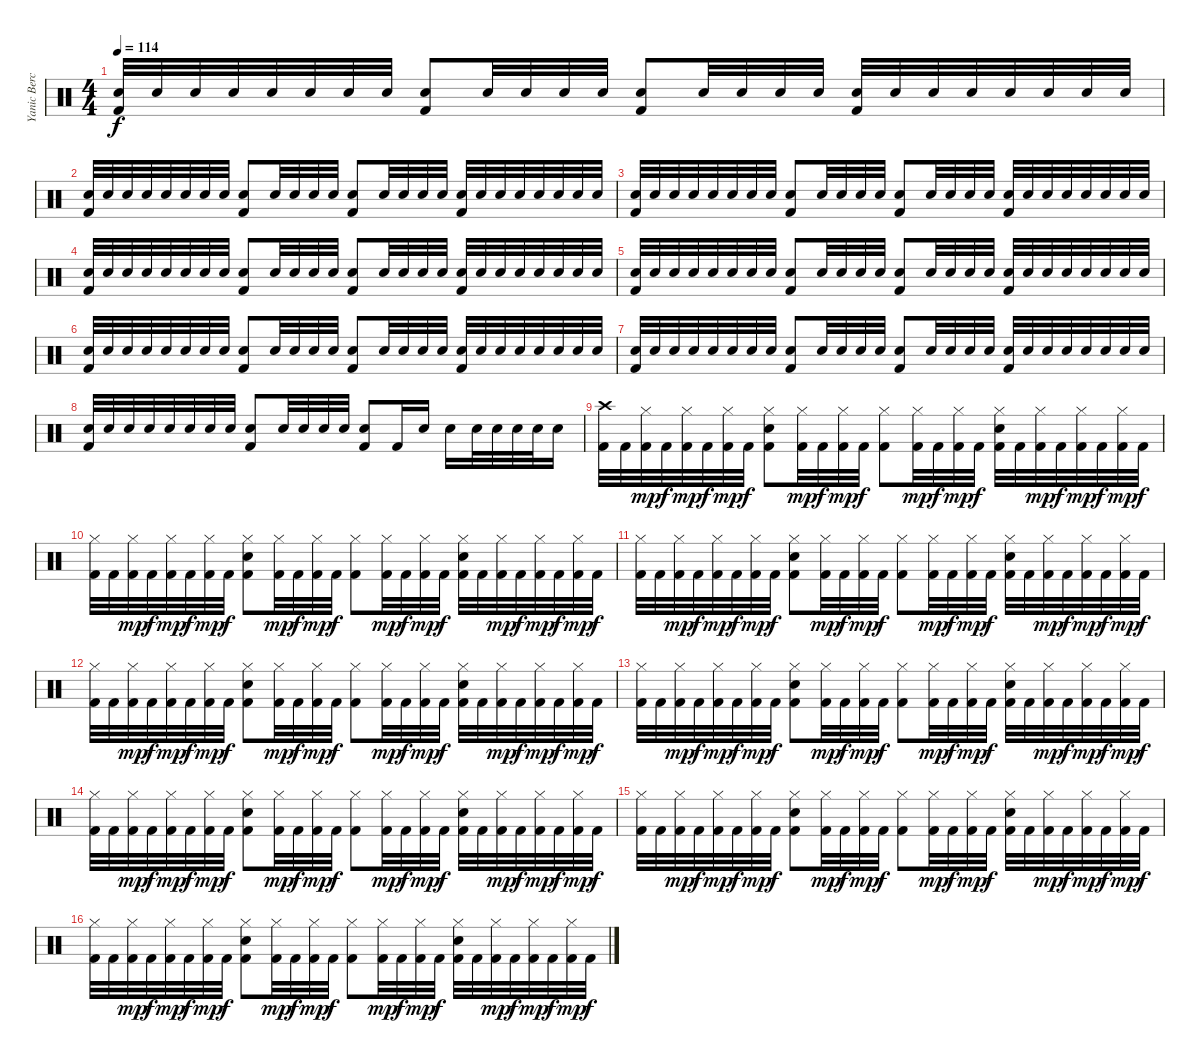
\track ("Yanic Bercier" "Yanic Berc") {instrument percussion}
\staff {score}
\articulation defaults
\ts (4 4)
\tempo 114
\clef neutral
\ks c
("Electric Snare (hit)" "Kick (hit) 2").32{dy f} "Electric Snare (hit)".32 "Electric Snare (hit)".32 "Electric Snare (hit)".32 "Electric Snare (hit)".32 "Electric Snare (hit)".32 "Electric Snare (hit)".32 "Electric Snare (hit)".32 ("Electric Snare (hit)" "Kick (hit) 2").8 "Electric Snare (hit)".32 "Electric Snare (hit)".32 "Electric Snare (hit)".32 "Electric Snare (hit)".32 ("Electric Snare (hit)" "Kick (hit) 2").8 "Electric Snare (hit)".32 "Electric Snare (hit)".32 "Electric Snare (hit)".32 "Electric Snare (hit)".32 ("Electric Snare (hit)" "Kick (hit) 2").32 "Electric Snare (hit)".32 "Electric Snare (hit)".32 "Electric Snare (hit)".32 "Electric Snare (hit)".32 "Electric Snare (hit)".32 "Electric Snare (hit)".32 "Electric Snare (hit)".32 |
("Electric Snare (hit)" "Kick (hit) 2").32 "Electric Snare (hit)".32 "Electric Snare (hit)".32 "Electric Snare (hit)".32 "Electric Snare (hit)".32 "Electric Snare (hit)".32 "Electric Snare (hit)".32 "Electric Snare (hit)".32 ("Electric Snare (hit)" "Kick (hit) 2").8 "Electric Snare (hit)".32 "Electric Snare (hit)".32 "Electric Snare (hit)".32 "Electric Snare (hit)".32 ("Electric Snare (hit)" "Kick (hit) 2").8 "Electric Snare (hit)".32 "Electric Snare (hit)".32 "Electric Snare (hit)".32 "Electric Snare (hit)".32 ("Electric Snare (hit)" "Kick (hit) 2").32 "Electric Snare (hit)".32 "Electric Snare (hit)".32 "Electric Snare (hit)".32 "Electric Snare (hit)".32 "Electric Snare (hit)".32 "Electric Snare (hit)".32 "Electric Snare (hit)".32 |
("Electric Snare (hit)" "Kick (hit) 2").32 "Electric Snare (hit)".32 "Electric Snare (hit)".32 "Electric Snare (hit)".32 "Electric Snare (hit)".32 "Electric Snare (hit)".32 "Electric Snare (hit)".32 "Electric Snare (hit)".32 ("Electric Snare (hit)" "Kick (hit) 2").8 "Electric Snare (hit)".32 "Electric Snare (hit)".32 "Electric Snare (hit)".32 "Electric Snare (hit)".32 ("Electric Snare (hit)" "Kick (hit) 2").8 "Electric Snare (hit)".32 "Electric Snare (hit)".32 "Electric Snare (hit)".32 "Electric Snare (hit)".32 ("Electric Snare (hit)" "Kick (hit) 2").32 "Electric Snare (hit)".32 "Electric Snare (hit)".32 "Electric Snare (hit)".32 "Electric Snare (hit)".32 "Electric Snare (hit)".32 "Electric Snare (hit)".32 "Electric Snare (hit)".32 |
("Electric Snare (hit)" "Kick (hit) 2").32 "Electric Snare (hit)".32 "Electric Snare (hit)".32 "Electric Snare (hit)".32 "Electric Snare (hit)".32 "Electric Snare (hit)".32 "Electric Snare (hit)".32 "Electric Snare (hit)".32 ("Electric Snare (hit)" "Kick (hit) 2").8 "Electric Snare (hit)".32 "Electric Snare (hit)".32 "Electric Snare (hit)".32 "Electric Snare (hit)".32 ("Electric Snare (hit)" "Kick (hit) 2").8 "Electric Snare (hit)".32 "Electric Snare (hit)".32 "Electric Snare (hit)".32 "Electric Snare (hit)".32 ("Electric Snare (hit)" "Kick (hit) 2").32 "Electric Snare (hit)".32 "Electric Snare (hit)".32 "Electric Snare (hit)".32 "Electric Snare (hit)".32 "Electric Snare (hit)".32 "Electric Snare (hit)".32 "Electric Snare (hit)".32 |
("Electric Snare (hit)" "Kick (hit) 2").32 "Electric Snare (hit)".32 "Electric Snare (hit)".32 "Electric Snare (hit)".32 "Electric Snare (hit)".32 "Electric Snare (hit)".32 "Electric Snare (hit)".32 "Electric Snare (hit)".32 ("Electric Snare (hit)" "Kick (hit) 2").8 "Electric Snare (hit)".32 "Electric Snare (hit)".32 "Electric Snare (hit)".32 "Electric Snare (hit)".32 ("Electric Snare (hit)" "Kick (hit) 2").8 "Electric Snare (hit)".32 "Electric Snare (hit)".32 "Electric Snare (hit)".32 "Electric Snare (hit)".32 ("Electric Snare (hit)" "Kick (hit) 2").32 "Electric Snare (hit)".32 "Electric Snare (hit)".32 "Electric Snare (hit)".32 "Electric Snare (hit)".32 "Electric Snare (hit)".32 "Electric Snare (hit)".32 "Electric Snare (hit)".32 |
("Electric Snare (hit)" "Kick (hit) 2").32 "Electric Snare (hit)".32 "Electric Snare (hit)".32 "Electric Snare (hit)".32 "Electric Snare (hit)".32 "Electric Snare (hit)".32 "Electric Snare (hit)".32 "Electric Snare (hit)".32 ("Electric Snare (hit)" "Kick (hit) 2").8 "Electric Snare (hit)".32 "Electric Snare (hit)".32 "Electric Snare (hit)".32 "Electric Snare (hit)".32 ("Electric Snare (hit)" "Kick (hit) 2").8 "Electric Snare (hit)".32 "Electric Snare (hit)".32 "Electric Snare (hit)".32 "Electric Snare (hit)".32 ("Electric Snare (hit)" "Kick (hit) 2").32 "Electric Snare (hit)".32 "Electric Snare (hit)".32 "Electric Snare (hit)".32 "Electric Snare (hit)".32 "Electric Snare (hit)".32 "Electric Snare (hit)".32 "Electric Snare (hit)".32 |
("Electric Snare (hit)" "Kick (hit) 2").32 "Electric Snare (hit)".32 "Electric Snare (hit)".32 "Electric Snare (hit)".32 "Electric Snare (hit)".32 "Electric Snare (hit)".32 "Electric Snare (hit)".32 "Electric Snare (hit)".32 ("Electric Snare (hit)" "Kick (hit) 2").8 "Electric Snare (hit)".32 "Electric Snare (hit)".32 "Electric Snare (hit)".32 "Electric Snare (hit)".32 ("Electric Snare (hit)" "Kick (hit) 2").8 "Electric Snare (hit)".32 "Electric Snare (hit)".32 "Electric Snare (hit)".32 "Electric Snare (hit)".32 ("Electric Snare (hit)" "Kick (hit) 2").32 "Electric Snare (hit)".32 "Electric Snare (hit)".32 "Electric Snare (hit)".32 "Electric Snare (hit)".32 "Electric Snare (hit)".32 "Electric Snare (hit)".32 "Electric Snare (hit)".32 |
("Electric Snare (hit)" "Kick (hit) 2").32 "Electric Snare (hit)".32 "Electric Snare (hit)".32 "Electric Snare (hit)".32 "Electric Snare (hit)".32 "Electric Snare (hit)".32 "Electric Snare (hit)".32 "Electric Snare (hit)".32 ("Electric Snare (hit)" "Kick (hit) 2").8 "Electric Snare (hit)".32 "Electric Snare (hit)".32 "Electric Snare (hit)".32 "Electric Snare (hit)".32 ("Electric Snare (hit)" "Kick (hit) 2").8 "Kick (hit) 2".16 "Electric Snare (hit)".16 "Electric Snare (hit)".16 "Electric Snare (hit)".32 "Electric Snare (hit)".32 "Electric Snare (hit)".32 "Electric Snare (hit)".32 "Electric Snare (hit)".16 |
("Crash high (hit)" "Kick (hit) 2").32 "Kick (hit) 2".32 ("Hi-Hat (closed)" "Kick (hit) 2").32{dy mp} "Kick (hit) 2".32{dy f} ("Hi-Hat (closed)" "Kick (hit) 2").32{dy mp} "Kick (hit) 2".32{dy f} ("Hi-Hat (closed)" "Kick (hit) 2").32{dy mp} "Kick (hit) 2".32{dy f} ("Hi-Hat (closed)" "Electric Snare (hit)" "Kick (hit) 2").8 ("Hi-Hat (closed)" "Kick (hit) 2").32{dy mp} "Kick (hit) 2".32{dy f} ("Hi-Hat (closed)" "Kick (hit) 2").32{dy mp} "Kick (hit) 2".32{dy f} ("Hi-Hat (closed)" "Kick (hit) 2").8 ("Hi-Hat (closed)" "Kick (hit) 2").32{dy mp} "Kick (hit) 2".32{dy f} ("Hi-Hat (closed)" "Kick (hit) 2").32{dy mp} "Kick (hit) 2".32{dy f} ("Hi-Hat (closed)" "Electric Snare (hit)" "Kick (hit) 2").32 "Kick (hit) 2".32 ("Hi-Hat (closed)" "Kick (hit) 2").32{dy mp} "Kick (hit) 2".32{dy f} ("Hi-Hat (closed)" "Kick (hit) 2").32{dy mp} "Kick (hit) 2".32{dy f} ("Hi-Hat (closed)" "Kick (hit) 2").32{dy mp} "Kick (hit) 2".32{dy f} |
("Hi-Hat (closed)" "Kick (hit) 2").32 "Kick (hit) 2".32 ("Hi-Hat (closed)" "Kick (hit) 2").32{dy mp} "Kick (hit) 2".32{dy f} ("Hi-Hat (closed)" "Kick (hit) 2").32{dy mp} "Kick (hit) 2".32{dy f} ("Hi-Hat (closed)" "Kick (hit) 2").32{dy mp} "Kick (hit) 2".32{dy f} ("Hi-Hat (closed)" "Electric Snare (hit)" "Kick (hit) 2").8 ("Hi-Hat (closed)" "Kick (hit) 2").32{dy mp} "Kick (hit) 2".32{dy f} ("Hi-Hat (closed)" "Kick (hit) 2").32{dy mp} "Kick (hit) 2".32{dy f} ("Hi-Hat (closed)" "Kick (hit) 2").8 ("Hi-Hat (closed)" "Kick (hit) 2").32{dy mp} "Kick (hit) 2".32{dy f} ("Hi-Hat (closed)" "Kick (hit) 2").32{dy mp} "Kick (hit) 2".32{dy f} ("Hi-Hat (closed)" "Electric Snare (hit)" "Kick (hit) 2").32 "Kick (hit) 2".32 ("Hi-Hat (closed)" "Kick (hit) 2").32{dy mp} "Kick (hit) 2".32{dy f} ("Hi-Hat (closed)" "Kick (hit) 2").32{dy mp} "Kick (hit) 2".32{dy f} ("Hi-Hat (closed)" "Kick (hit) 2").32{dy mp} "Kick (hit) 2".32{dy f} |
("Hi-Hat (closed)" "Kick (hit) 2").32 "Kick (hit) 2".32 ("Hi-Hat (closed)" "Kick (hit) 2").32{dy mp} "Kick (hit) 2".32{dy f} ("Hi-Hat (closed)" "Kick (hit) 2").32{dy mp} "Kick (hit) 2".32{dy f} ("Hi-Hat (closed)" "Kick (hit) 2").32{dy mp} "Kick (hit) 2".32{dy f} ("Hi-Hat (closed)" "Electric Snare (hit)" "Kick (hit) 2").8 ("Hi-Hat (closed)" "Kick (hit) 2").32{dy mp} "Kick (hit) 2".32{dy f} ("Hi-Hat (closed)" "Kick (hit) 2").32{dy mp} "Kick (hit) 2".32{dy f} ("Hi-Hat (closed)" "Kick (hit) 2").8 ("Hi-Hat (closed)" "Kick (hit) 2").32{dy mp} "Kick (hit) 2".32{dy f} ("Hi-Hat (closed)" "Kick (hit) 2").32{dy mp} "Kick (hit) 2".32{dy f} ("Hi-Hat (closed)" "Electric Snare (hit)" "Kick (hit) 2").32 "Kick (hit) 2".32 ("Hi-Hat (closed)" "Kick (hit) 2").32{dy mp} "Kick (hit) 2".32{dy f} ("Hi-Hat (closed)" "Kick (hit) 2").32{dy mp} "Kick (hit) 2".32{dy f} ("Hi-Hat (closed)" "Kick (hit) 2").32{dy mp} "Kick (hit) 2".32{dy f} |
("Hi-Hat (closed)" "Kick (hit) 2").32 "Kick (hit) 2".32 ("Hi-Hat (closed)" "Kick (hit) 2").32{dy mp} "Kick (hit) 2".32{dy f} ("Hi-Hat (closed)" "Kick (hit) 2").32{dy mp} "Kick (hit) 2".32{dy f} ("Hi-Hat (closed)" "Kick (hit) 2").32{dy mp} "Kick (hit) 2".32{dy f} ("Hi-Hat (closed)" "Electric Snare (hit)" "Kick (hit) 2").8 ("Hi-Hat (closed)" "Kick (hit) 2").32{dy mp} "Kick (hit) 2".32{dy f} ("Hi-Hat (closed)" "Kick (hit) 2").32{dy mp} "Kick (hit) 2".32{dy f} ("Hi-Hat (closed)" "Kick (hit) 2").8 ("Hi-Hat (closed)" "Kick (hit) 2").32{dy mp} "Kick (hit) 2".32{dy f} ("Hi-Hat (closed)" "Kick (hit) 2").32{dy mp} "Kick (hit) 2".32{dy f} ("Hi-Hat (closed)" "Electric Snare (hit)" "Kick (hit) 2").32 "Kick (hit) 2".32 ("Hi-Hat (closed)" "Kick (hit) 2").32{dy mp} "Kick (hit) 2".32{dy f} ("Hi-Hat (closed)" "Kick (hit) 2").32{dy mp} "Kick (hit) 2".32{dy f} ("Hi-Hat (closed)" "Kick (hit) 2").32{dy mp} "Kick (hit) 2".32{dy f} |
("Hi-Hat (closed)" "Kick (hit) 2").32 "Kick (hit) 2".32 ("Hi-Hat (closed)" "Kick (hit) 2").32{dy mp} "Kick (hit) 2".32{dy f} ("Hi-Hat (closed)" "Kick (hit) 2").32{dy mp} "Kick (hit) 2".32{dy f} ("Hi-Hat (closed)" "Kick (hit) 2").32{dy mp} "Kick (hit) 2".32{dy f} ("Hi-Hat (closed)" "Electric Snare (hit)" "Kick (hit) 2").8 ("Hi-Hat (closed)" "Kick (hit) 2").32{dy mp} "Kick (hit) 2".32{dy f} ("Hi-Hat (closed)" "Kick (hit) 2").32{dy mp} "Kick (hit) 2".32{dy f} ("Hi-Hat (closed)" "Kick (hit) 2").8 ("Hi-Hat (closed)" "Kick (hit) 2").32{dy mp} "Kick (hit) 2".32{dy f} ("Hi-Hat (closed)" "Kick (hit) 2").32{dy mp} "Kick (hit) 2".32{dy f} ("Hi-Hat (closed)" "Electric Snare (hit)" "Kick (hit) 2").32 "Kick (hit) 2".32 ("Hi-Hat (closed)" "Kick (hit) 2").32{dy mp} "Kick (hit) 2".32{dy f} ("Hi-Hat (closed)" "Kick (hit) 2").32{dy mp} "Kick (hit) 2".32{dy f} ("Hi-Hat (closed)" "Kick (hit) 2").32{dy mp} "Kick (hit) 2".32{dy f} |
("Hi-Hat (closed)" "Kick (hit) 2").32 "Kick (hit) 2".32 ("Hi-Hat (closed)" "Kick (hit) 2").32{dy mp} "Kick (hit) 2".32{dy f} ("Hi-Hat (closed)" "Kick (hit) 2").32{dy mp} "Kick (hit) 2".32{dy f} ("Hi-Hat (closed)" "Kick (hit) 2").32{dy mp} "Kick (hit) 2".32{dy f} ("Hi-Hat (closed)" "Electric Snare (hit)" "Kick (hit) 2").8 ("Hi-Hat (closed)" "Kick (hit) 2").32{dy mp} "Kick (hit) 2".32{dy f} ("Hi-Hat (closed)" "Kick (hit) 2").32{dy mp} "Kick (hit) 2".32{dy f} ("Hi-Hat (closed)" "Kick (hit) 2").8 ("Hi-Hat (closed)" "Kick (hit) 2").32{dy mp} "Kick (hit) 2".32{dy f} ("Hi-Hat (closed)" "Kick (hit) 2").32{dy mp} "Kick (hit) 2".32{dy f} ("Hi-Hat (closed)" "Electric Snare (hit)" "Kick (hit) 2").32 "Kick (hit) 2".32 ("Hi-Hat (closed)" "Kick (hit) 2").32{dy mp} "Kick (hit) 2".32{dy f} ("Hi-Hat (closed)" "Kick (hit) 2").32{dy mp} "Kick (hit) 2".32{dy f} ("Hi-Hat (closed)" "Kick (hit) 2").32{dy mp} "Kick (hit) 2".32{dy f} |
("Hi-Hat (closed)" "Kick (hit) 2").32 "Kick (hit) 2".32 ("Hi-Hat (closed)" "Kick (hit) 2").32{dy mp} "Kick (hit) 2".32{dy f} ("Hi-Hat (closed)" "Kick (hit) 2").32{dy mp} "Kick (hit) 2".32{dy f} ("Hi-Hat (closed)" "Kick (hit) 2").32{dy mp} "Kick (hit) 2".32{dy f} ("Hi-Hat (closed)" "Electric Snare (hit)" "Kick (hit) 2").8 ("Hi-Hat (closed)" "Kick (hit) 2").32{dy mp} "Kick (hit) 2".32{dy f} ("Hi-Hat (closed)" "Kick (hit) 2").32{dy mp} "Kick (hit) 2".32{dy f} ("Hi-Hat (closed)" "Kick (hit) 2").8 ("Hi-Hat (closed)" "Kick (hit) 2").32{dy mp} "Kick (hit) 2".32{dy f} ("Hi-Hat (closed)" "Kick (hit) 2").32{dy mp} "Kick (hit) 2".32{dy f} ("Hi-Hat (closed)" "Electric Snare (hit)" "Kick (hit) 2").32 "Kick (hit) 2".32 ("Hi-Hat (closed)" "Kick (hit) 2").32{dy mp} "Kick (hit) 2".32{dy f} ("Hi-Hat (closed)" "Kick (hit) 2").32{dy mp} "Kick (hit) 2".32{dy f} ("Hi-Hat (closed)" "Kick (hit) 2").32{dy mp} "Kick (hit) 2".32{dy f} |
("Hi-Hat (closed)" "Kick (hit) 2").32 "Kick (hit) 2".32 ("Hi-Hat (closed)" "Kick (hit) 2").32{dy mp} "Kick (hit) 2".32{dy f} ("Hi-Hat (closed)" "Kick (hit) 2").32{dy mp} "Kick (hit) 2".32{dy f} ("Hi-Hat (closed)" "Kick (hit) 2").32{dy mp} "Kick (hit) 2".32{dy f} ("Hi-Hat (closed)" "Electric Snare (hit)" "Kick (hit) 2").8 ("Hi-Hat (closed)" "Kick (hit) 2").32{dy mp} "Kick (hit) 2".32{dy f} ("Hi-Hat (closed)" "Kick (hit) 2").32{dy mp} "Kick (hit) 2".32{dy f} ("Hi-Hat (closed)" "Kick (hit) 2").8 ("Hi-Hat (closed)" "Kick (hit) 2").32{dy mp} "Kick (hit) 2".32{dy f} ("Hi-Hat (closed)" "Kick (hit) 2").32{dy mp} "Kick (hit) 2".32{dy f} ("Hi-Hat (closed)" "Electric Snare (hit)" "Kick (hit) 2").32 "Kick (hit) 2".32 ("Hi-Hat (closed)" "Kick (hit) 2").32{dy mp} "Kick (hit) 2".32{dy f} ("Hi-Hat (closed)" "Kick (hit) 2").32{dy mp} "Kick (hit) 2".32{dy f} ("Hi-Hat (closed)" "Kick (hit) 2").32{dy mp} "Kick (hit) 2".32{dy f}
